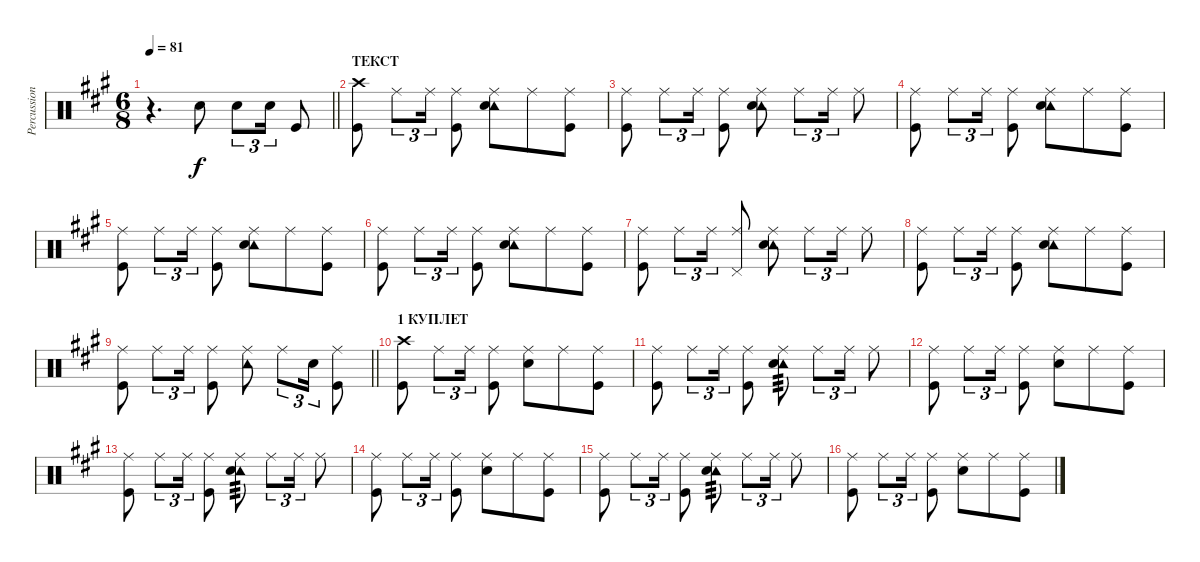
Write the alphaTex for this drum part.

\track ("Percussion" "Percussion") {instrument percussion}
\staff {score}
\articulation defaults
\ts (6 8)
\tempo 81
\clef neutral
\barLineRight lightlight
\ks a
r.4{d dy f} "Snare (hit) 2".8 "Snare (hit) 2".8{tu (3 2)} "Snare (hit) 2".16{tu (3 2)} "Kick (hit)".8 |
\section ("" "ТЕКСТ")
("Crash high (hit)" "Kick (hit)").8 "Ride (middle)".8{tu (3 2)} "Ride (middle)".16{tu (3 2)} ("Ride (middle)" "Kick (hit)").8 ("Ride (middle)" "Tambourine (hit)" "Snare (hit) 2").8 "Ride (middle)".8 ("Ride (middle)" "Kick (hit)").8 |
("Ride (middle)" "Kick (hit)").8 "Ride (middle)".8{tu (3 2)} "Ride (middle)".16{tu (3 2)} ("Ride (middle)" "Kick (hit)").8 ("Ride (middle)" "Tambourine (hit)" "Snare (hit) 2").8 "Ride (middle)".8{tu (3 2)} "Ride (middle)".16{tu (3 2)} "Ride (middle)".8 |
("Ride (middle)" "Kick (hit)").8 "Ride (middle)".8{tu (3 2)} "Ride (middle)".16{tu (3 2)} ("Ride (middle)" "Kick (hit)").8 ("Ride (middle)" "Tambourine (hit)" "Snare (hit) 2").8 "Ride (middle)".8 ("Ride (middle)" "Kick (hit)").8 |
("Ride (middle)" "Kick (hit)").8 "Ride (middle)".8{tu (3 2)} "Ride (middle)".16{tu (3 2)} ("Ride (middle)" "Kick (hit)").8 ("Ride (middle)" "Tambourine (hit)" "Snare (hit) 2").8 "Ride (middle)".8 ("Ride (middle)" "Kick (hit)").8 |
("Ride (middle)" "Kick (hit)").8 "Ride (middle)".8{tu (3 2)} "Ride (middle)".16{tu (3 2)} ("Ride (middle)" "Kick (hit)").8 ("Ride (middle)" "Tambourine (hit)" "Snare (hit) 2").8 "Ride (middle)".8 ("Ride (middle)" "Kick (hit)").8 |
("Ride (middle)" "Kick (hit)").8 "Ride (middle)".8{tu (3 2)} "Ride (middle)".16{tu (3 2)} ("Ride (middle)" "Pedal Hi-Hat (hit)").8 ("Ride (middle)" "Tambourine (hit)" "Snare (hit) 2").8 "Ride (middle)".8{tu (3 2)} "Ride (middle)".16{tu (3 2)} "Ride (middle)".8 |
("Ride (middle)" "Kick (hit)").8 "Ride (middle)".8{tu (3 2)} "Ride (middle)".16{tu (3 2)} ("Ride (middle)" "Kick (hit)").8 ("Ride (middle)" "Tambourine (hit)" "Snare (hit) 2").8 "Ride (middle)".8 ("Ride (middle)" "Kick (hit)").8 |
\barLineRight lightlight
("Ride (middle)" "Kick (hit)").8 "Ride (middle)".8{tu (3 2)} "Ride (middle)".16{tu (3 2)} ("Ride (middle)" "Kick (hit)").8 ("Ride (middle)" "Tambourine (hit)").8 "Ride (middle)".8{tu (3 2)} "Snare (hit) 2".16{tu (3 2)} ("Ride (middle)" "Kick (hit)").8 |
\section ("" "1 КУПЛЕТ")
("Crash high (hit)" "Kick (hit)").8 "Ride (middle)".8{tu (3 2)} "Ride (middle)".16{tu (3 2)} ("Ride (middle)" "Kick (hit)").8 ("Ride (middle)" "Snare (hit) 2").8 "Ride (middle)".8 ("Ride (middle)" "Kick (hit)").8 |
("Ride (middle)" "Kick (hit)").8 "Ride (middle)".8{tu (3 2)} "Ride (middle)".16{tu (3 2)} ("Ride (middle)" "Kick (hit)").8 ("Ride (middle)" "Tambourine (hit)" "Snare (hit) 2").8{tp 3} "Ride (middle)".8{tu (3 2)} "Ride (middle)".16{tu (3 2)} "Ride (middle)".8 |
("Ride (middle)" "Kick (hit)").8 "Ride (middle)".8{tu (3 2)} "Ride (middle)".16{tu (3 2)} ("Ride (middle)" "Kick (hit)").8 ("Ride (middle)" "Snare (hit) 2").8 "Ride (middle)".8 ("Ride (middle)" "Kick (hit)").8 |
("Ride (middle)" "Kick (hit)").8 "Ride (middle)".8{tu (3 2)} "Ride (middle)".16{tu (3 2)} ("Ride (middle)" "Kick (hit)").8 ("Ride (middle)" "Tambourine (hit)" "Snare (hit) 2").8{tp 3} "Ride (middle)".8{tu (3 2)} "Ride (middle)".16{tu (3 2)} "Ride (middle)".8 |
("Ride (middle)" "Kick (hit)").8 "Ride (middle)".8{tu (3 2)} "Ride (middle)".16{tu (3 2)} ("Ride (middle)" "Kick (hit)").8 ("Ride (middle)" "Snare (hit) 2").8 "Ride (middle)".8 ("Ride (middle)" "Kick (hit)").8 |
("Ride (middle)" "Kick (hit)").8 "Ride (middle)".8{tu (3 2)} "Ride (middle)".16{tu (3 2)} ("Ride (middle)" "Kick (hit)").8 ("Ride (middle)" "Tambourine (hit)" "Snare (hit) 2").8{tp 3} "Ride (middle)".8{tu (3 2)} "Ride (middle)".16{tu (3 2)} "Ride (middle)".8 |
("Ride (middle)" "Kick (hit)").8 "Ride (middle)".8{tu (3 2)} "Ride (middle)".16{tu (3 2)} ("Ride (middle)" "Kick (hit)").8 ("Ride (middle)" "Snare (hit) 2").8 "Ride (middle)".8 ("Ride (middle)" "Kick (hit)").8
